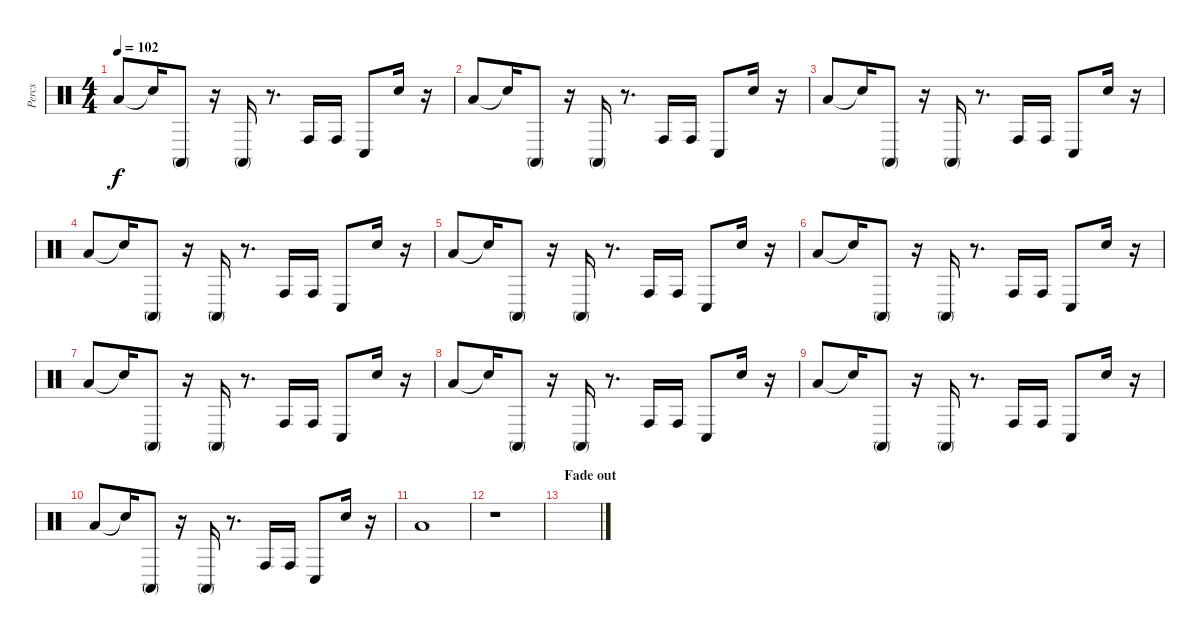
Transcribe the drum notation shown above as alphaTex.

\track ("Percs" "Percs") {instrument percussion}
\staff {score}
\articulation defaults
\ts (4 4)
\tempo 102
\clef neutral
\ks c "Low Floor Tom (hit)".8{dy f} "Snare (hit)"{t}.16 "Conga high (mute)".8
r.16 "Conga high (mute)".16 r.8{d} "Conga high (hit)".16 "Conga high (hit)".16 "Conga low (hit)".8 "Hand Clap (hit)".16 r.16 |
"Low Floor Tom (hit)".8 "Snare (hit)"{t}.16 "Conga high (mute)".8 r.16 "Conga high (mute)".16 r.8{d} "Conga high (hit)".16 "Conga high (hit)".16 "Conga low (hit)".8 "Hand Clap (hit)".16 r.16 |
"Low Floor Tom (hit)".8 "Snare (hit)"{t}.16 "Conga high (mute)".8 r.16 "Conga high (mute)".16 r.8{d} "Conga high (hit)".16 "Conga high (hit)".16 "Conga low (hit)".8 "Hand Clap (hit)".16 r.16 |
"Low Floor Tom (hit)".8 "Snare (hit)"{t}.16 "Conga high (mute)".8 r.16 "Conga high (mute)".16 r.8{d} "Conga high (hit)".16 "Conga high (hit)".16 "Conga low (hit)".8 "Hand Clap (hit)".16 r.16 |
"Low Floor Tom (hit)".8 "Snare (hit)"{t}.16 "Conga high (mute)".8 r.16 "Conga high (mute)".16 r.8{d} "Conga high (hit)".16 "Conga high (hit)".16 "Conga low (hit)".8 "Hand Clap (hit)".16 r.16 |
"Low Floor Tom (hit)".8 "Snare (hit)"{t}.16 "Conga high (mute)".8 r.16 "Conga high (mute)".16 r.8{d} "Conga high (hit)".16 "Conga high (hit)".16 "Conga low (hit)".8 "Hand Clap (hit)".16 r.16 |
"Low Floor Tom (hit)".8 "Snare (hit)"{t}.16 "Conga high (mute)".8 r.16 "Conga high (mute)".16 r.8{d} "Conga high (hit)".16 "Conga high (hit)".16 "Conga low (hit)".8 "Hand Clap (hit)".16 r.16 |
"Low Floor Tom (hit)".8 "Snare (hit)"{t}.16 "Conga high (mute)".8 r.16 "Conga high (mute)".16 r.8{d} "Conga high (hit)".16 "Conga high (hit)".16 "Conga low (hit)".8 "Hand Clap (hit)".16 r.16 |
"Low Floor Tom (hit)".8 "Snare (hit)"{t}.16 "Conga high (mute)".8 r.16 "Conga high (mute)".16 r.8{d} "Conga high (hit)".16 "Conga high (hit)".16 "Conga low (hit)".8 "Hand Clap (hit)".16 r.16 |
"Low Floor Tom (hit)".8 "Snare (hit)"{t}.16 "Conga high (mute)".8 r.16 "Conga high (mute)".16 r.8{d} "Conga high (hit)".16 "Conga high (hit)".16 "Conga low (hit)".8 "Hand Clap (hit)".16 r.16 |
"Low Floor Tom (hit)".1 |
r.1 |
\section ("" "Fade out")
